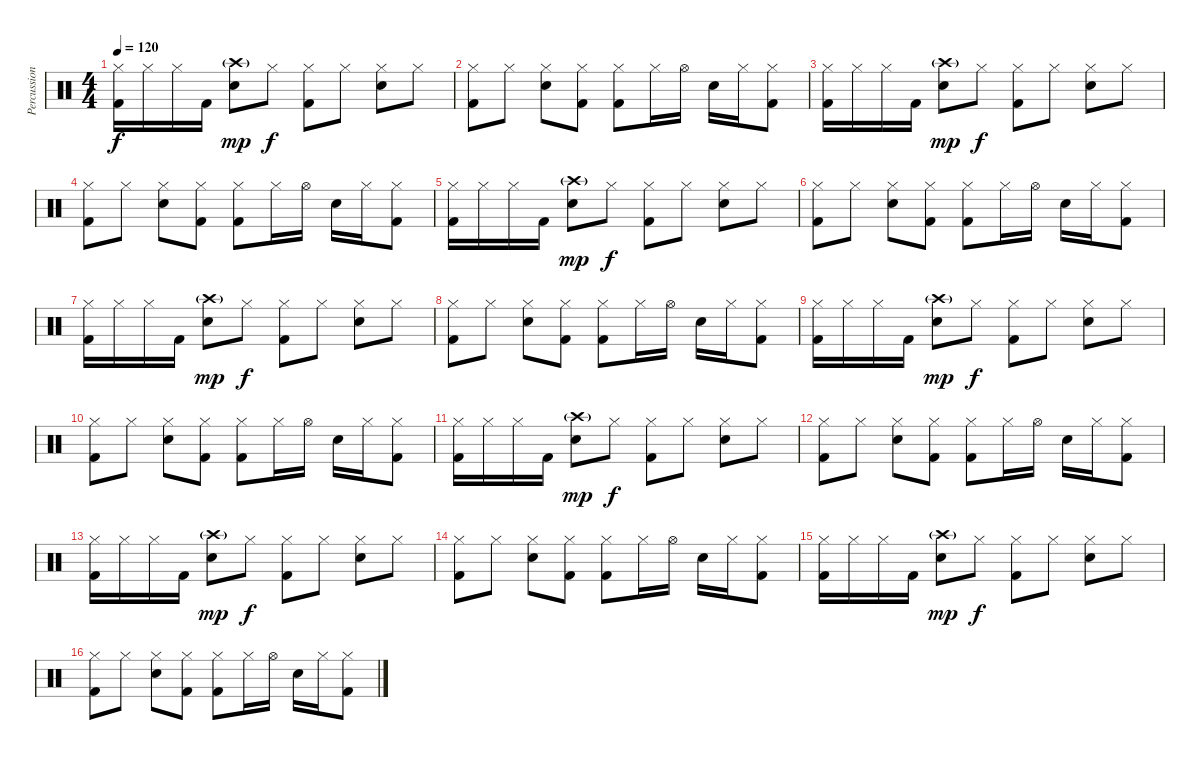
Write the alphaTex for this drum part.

\track ("Percussions" "Percussion") {instrument percussion}
\staff {score}
\articulation defaults
\ts (4 4)
\tempo 120
\clef neutral
\ks c
("Hi-Hat (closed)" "Kick (hit) 2").16{dy f} "Hi-Hat (closed)".16 "Hi-Hat (closed)".16 "Kick (hit) 2".16 ("Crash high (hit)"{g} "Snare (hit) 2").8{dy mp} "Hi-Hat (closed)".8{dy f} ("Hi-Hat (closed)" "Kick (hit) 2").8 "Hi-Hat (closed)".8 ("Hi-Hat (closed)" "Snare (hit) 2").8 "Hi-Hat (closed)".8 |
("Hi-Hat (closed)" "Kick (hit) 2").8 "Hi-Hat (closed)".8 ("Hi-Hat (closed)" "Snare (hit) 2").8 ("Hi-Hat (closed)" "Kick (hit) 2").8 ("Hi-Hat (closed)" "Kick (hit) 2").8 "Hi-Hat (closed)".16 "Hi-Hat (open)".16 "Snare (hit) 2".16 "Hi-Hat (closed)".16 ("Hi-Hat (closed)" "Kick (hit) 2").8 |
("Hi-Hat (closed)" "Kick (hit) 2").16 "Hi-Hat (closed)".16 "Hi-Hat (closed)".16 "Kick (hit) 2".16 ("Crash high (hit)"{g} "Snare (hit) 2").8{dy mp} "Hi-Hat (closed)".8{dy f} ("Hi-Hat (closed)" "Kick (hit) 2").8 "Hi-Hat (closed)".8 ("Hi-Hat (closed)" "Snare (hit) 2").8 "Hi-Hat (closed)".8 |
("Hi-Hat (closed)" "Kick (hit) 2").8 "Hi-Hat (closed)".8 ("Hi-Hat (closed)" "Snare (hit) 2").8 ("Hi-Hat (closed)" "Kick (hit) 2").8 ("Hi-Hat (closed)" "Kick (hit) 2").8 "Hi-Hat (closed)".16 "Hi-Hat (open)".16 "Snare (hit) 2".16 "Hi-Hat (closed)".16 ("Hi-Hat (closed)" "Kick (hit) 2").8 |
("Hi-Hat (closed)" "Kick (hit) 2").16 "Hi-Hat (closed)".16 "Hi-Hat (closed)".16 "Kick (hit) 2".16 ("Crash high (hit)"{g} "Snare (hit) 2").8{dy mp} "Hi-Hat (closed)".8{dy f} ("Hi-Hat (closed)" "Kick (hit) 2").8 "Hi-Hat (closed)".8 ("Hi-Hat (closed)" "Snare (hit) 2").8 "Hi-Hat (closed)".8 |
("Hi-Hat (closed)" "Kick (hit) 2").8 "Hi-Hat (closed)".8 ("Hi-Hat (closed)" "Snare (hit) 2").8 ("Hi-Hat (closed)" "Kick (hit) 2").8 ("Hi-Hat (closed)" "Kick (hit) 2").8 "Hi-Hat (closed)".16 "Hi-Hat (open)".16 "Snare (hit) 2".16 "Hi-Hat (closed)".16 ("Hi-Hat (closed)" "Kick (hit) 2").8 |
("Hi-Hat (closed)" "Kick (hit) 2").16 "Hi-Hat (closed)".16 "Hi-Hat (closed)".16 "Kick (hit) 2".16 ("Crash high (hit)"{g} "Snare (hit) 2").8{dy mp} "Hi-Hat (closed)".8{dy f} ("Hi-Hat (closed)" "Kick (hit) 2").8 "Hi-Hat (closed)".8 ("Hi-Hat (closed)" "Snare (hit) 2").8 "Hi-Hat (closed)".8 |
("Hi-Hat (closed)" "Kick (hit) 2").8 "Hi-Hat (closed)".8 ("Hi-Hat (closed)" "Snare (hit) 2").8 ("Hi-Hat (closed)" "Kick (hit) 2").8 ("Hi-Hat (closed)" "Kick (hit) 2").8 "Hi-Hat (closed)".16 "Hi-Hat (open)".16 "Snare (hit) 2".16 "Hi-Hat (closed)".16 ("Hi-Hat (closed)" "Kick (hit) 2").8 |
("Hi-Hat (closed)" "Kick (hit) 2").16 "Hi-Hat (closed)".16 "Hi-Hat (closed)".16 "Kick (hit) 2".16 ("Crash high (hit)"{g} "Snare (hit) 2").8{dy mp} "Hi-Hat (closed)".8{dy f} ("Hi-Hat (closed)" "Kick (hit) 2").8 "Hi-Hat (closed)".8 ("Hi-Hat (closed)" "Snare (hit) 2").8 "Hi-Hat (closed)".8 |
("Hi-Hat (closed)" "Kick (hit) 2").8 "Hi-Hat (closed)".8 ("Hi-Hat (closed)" "Snare (hit) 2").8 ("Hi-Hat (closed)" "Kick (hit) 2").8 ("Hi-Hat (closed)" "Kick (hit) 2").8 "Hi-Hat (closed)".16 "Hi-Hat (open)".16 "Snare (hit) 2".16 "Hi-Hat (closed)".16 ("Hi-Hat (closed)" "Kick (hit) 2").8 |
("Hi-Hat (closed)" "Kick (hit) 2").16 "Hi-Hat (closed)".16 "Hi-Hat (closed)".16 "Kick (hit) 2".16 ("Crash high (hit)"{g} "Snare (hit) 2").8{dy mp} "Hi-Hat (closed)".8{dy f} ("Hi-Hat (closed)" "Kick (hit) 2").8 "Hi-Hat (closed)".8 ("Hi-Hat (closed)" "Snare (hit) 2").8 "Hi-Hat (closed)".8 |
("Hi-Hat (closed)" "Kick (hit) 2").8 "Hi-Hat (closed)".8 ("Hi-Hat (closed)" "Snare (hit) 2").8 ("Hi-Hat (closed)" "Kick (hit) 2").8 ("Hi-Hat (closed)" "Kick (hit) 2").8 "Hi-Hat (closed)".16 "Hi-Hat (open)".16 "Snare (hit) 2".16 "Hi-Hat (closed)".16 ("Hi-Hat (closed)" "Kick (hit) 2").8 |
("Hi-Hat (closed)" "Kick (hit) 2").16 "Hi-Hat (closed)".16 "Hi-Hat (closed)".16 "Kick (hit) 2".16 ("Crash high (hit)"{g} "Snare (hit) 2").8{dy mp} "Hi-Hat (closed)".8{dy f} ("Hi-Hat (closed)" "Kick (hit) 2").8 "Hi-Hat (closed)".8 ("Hi-Hat (closed)" "Snare (hit) 2").8 "Hi-Hat (closed)".8 |
("Hi-Hat (closed)" "Kick (hit) 2").8 "Hi-Hat (closed)".8 ("Hi-Hat (closed)" "Snare (hit) 2").8 ("Hi-Hat (closed)" "Kick (hit) 2").8 ("Hi-Hat (closed)" "Kick (hit) 2").8 "Hi-Hat (closed)".16 "Hi-Hat (open)".16 "Snare (hit) 2".16 "Hi-Hat (closed)".16 ("Hi-Hat (closed)" "Kick (hit) 2").8 |
("Hi-Hat (closed)" "Kick (hit) 2").16 "Hi-Hat (closed)".16 "Hi-Hat (closed)".16 "Kick (hit) 2".16 ("Crash high (hit)"{g} "Snare (hit) 2").8{dy mp} "Hi-Hat (closed)".8{dy f} ("Hi-Hat (closed)" "Kick (hit) 2").8 "Hi-Hat (closed)".8 ("Hi-Hat (closed)" "Snare (hit) 2").8 "Hi-Hat (closed)".8 |
("Hi-Hat (closed)" "Kick (hit) 2").8 "Hi-Hat (closed)".8 ("Hi-Hat (closed)" "Snare (hit) 2").8 ("Hi-Hat (closed)" "Kick (hit) 2").8 ("Hi-Hat (closed)" "Kick (hit) 2").8 "Hi-Hat (closed)".16 "Hi-Hat (open)".16 "Snare (hit) 2".16 "Hi-Hat (closed)".16 ("Hi-Hat (closed)" "Kick (hit) 2").8
